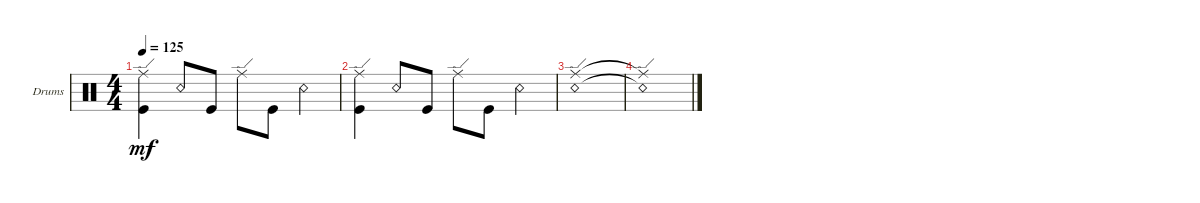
\defaultSystemsLayout 4
\bracketExtendMode groupsimilarinstruments
\firstSystemTrackNameOrientation horizontal
\otherSystemsTrackNameOrientation horizontal
\track ("Drumkit" "Drums") {instrument percussion}
\staff {score}
\articulation defaults
\ts (4 4)
\tempo 125
\clef neutral
\ks c
("Kick (hit)" "Ride (edge)").4{dy mf} "Snare (rim shot)".8 "Kick (hit)".8 "Ride (edge)".8 "Kick (hit)".8 "Snare (rim shot)".4 |
("Kick (hit)" "Ride (edge)").4 "Snare (rim shot)".8 "Kick (hit)".8 "Ride (edge)".8 "Kick (hit)".8 "Snare (rim shot)".4 |
("Snare (rim shot)" "Ride (edge)").1 |
("Snare (rim shot)"{t} "Ride (edge)"{t}).1
